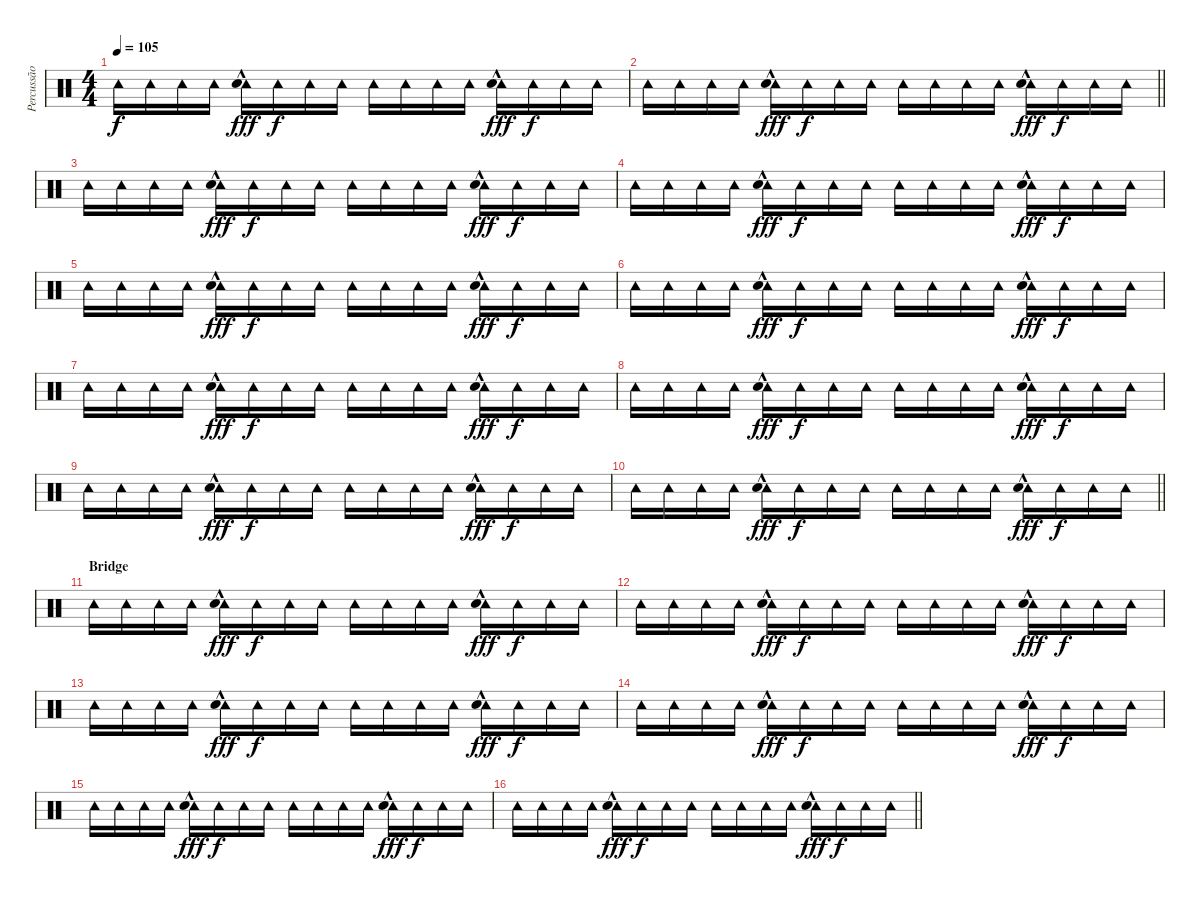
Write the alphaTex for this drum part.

\track ("Percussão" "Percussão") {instrument percussion}
\staff {score}
\articulation defaults
\ts (4 4)
\tempo 105
\clef neutral
\ks c "Tambourine (hit)".16{dy f} "Tambourine (hit)".16 "Tambourine (hit)".16 "Tambourine (hit)".16
("Tambourine (hit)" "Hand Clap (hit)"{hac}).16{dy fff} "Tambourine (hit)".16{dy f} "Tambourine (hit)".16 "Tambourine (hit)".16 "Tambourine (hit)".16 "Tambourine (hit)".16 "Tambourine (hit)".16 "Tambourine (hit)".16 ("Tambourine (hit)" "Hand Clap (hit)"{hac}).16{dy fff} "Tambourine (hit)".16{dy f} "Tambourine (hit)".16 "Tambourine (hit)".16 |
\barLineRight lightlight "Tambourine (hit)".16 "Tambourine (hit)".16 "Tambourine (hit)".16 "Tambourine (hit)".16
("Tambourine (hit)" "Hand Clap (hit)"{hac}).16{dy fff} "Tambourine (hit)".16{dy f} "Tambourine (hit)".16 "Tambourine (hit)".16 "Tambourine (hit)".16 "Tambourine (hit)".16 "Tambourine (hit)".16 "Tambourine (hit)".16 ("Tambourine (hit)" "Hand Clap (hit)"{hac}).16{dy fff} "Tambourine (hit)".16{dy f} "Tambourine (hit)".16 "Tambourine (hit)".16 |
"Tambourine (hit)".16 "Tambourine (hit)".16 "Tambourine (hit)".16 "Tambourine (hit)".16 ("Tambourine (hit)" "Hand Clap (hit)"{hac}).16{dy fff} "Tambourine (hit)".16{dy f} "Tambourine (hit)".16 "Tambourine (hit)".16 "Tambourine (hit)".16 "Tambourine (hit)".16 "Tambourine (hit)".16 "Tambourine (hit)".16 ("Tambourine (hit)" "Hand Clap (hit)"{hac}).16{dy fff} "Tambourine (hit)".16{dy f} "Tambourine (hit)".16 "Tambourine (hit)".16 |
"Tambourine (hit)".16 "Tambourine (hit)".16 "Tambourine (hit)".16 "Tambourine (hit)".16 ("Tambourine (hit)" "Hand Clap (hit)"{hac}).16{dy fff} "Tambourine (hit)".16{dy f} "Tambourine (hit)".16 "Tambourine (hit)".16 "Tambourine (hit)".16 "Tambourine (hit)".16 "Tambourine (hit)".16 "Tambourine (hit)".16 ("Tambourine (hit)" "Hand Clap (hit)"{hac}).16{dy fff} "Tambourine (hit)".16{dy f} "Tambourine (hit)".16 "Tambourine (hit)".16 |
"Tambourine (hit)".16 "Tambourine (hit)".16 "Tambourine (hit)".16 "Tambourine (hit)".16 ("Tambourine (hit)" "Hand Clap (hit)"{hac}).16{dy fff} "Tambourine (hit)".16{dy f} "Tambourine (hit)".16 "Tambourine (hit)".16 "Tambourine (hit)".16 "Tambourine (hit)".16 "Tambourine (hit)".16 "Tambourine (hit)".16 ("Tambourine (hit)" "Hand Clap (hit)"{hac}).16{dy fff} "Tambourine (hit)".16{dy f} "Tambourine (hit)".16 "Tambourine (hit)".16 |
"Tambourine (hit)".16 "Tambourine (hit)".16 "Tambourine (hit)".16 "Tambourine (hit)".16 ("Tambourine (hit)" "Hand Clap (hit)"{hac}).16{dy fff} "Tambourine (hit)".16{dy f} "Tambourine (hit)".16 "Tambourine (hit)".16 "Tambourine (hit)".16 "Tambourine (hit)".16 "Tambourine (hit)".16 "Tambourine (hit)".16 ("Tambourine (hit)" "Hand Clap (hit)"{hac}).16{dy fff} "Tambourine (hit)".16{dy f} "Tambourine (hit)".16 "Tambourine (hit)".16 |
"Tambourine (hit)".16 "Tambourine (hit)".16 "Tambourine (hit)".16 "Tambourine (hit)".16 ("Tambourine (hit)" "Hand Clap (hit)"{hac}).16{dy fff} "Tambourine (hit)".16{dy f} "Tambourine (hit)".16 "Tambourine (hit)".16 "Tambourine (hit)".16 "Tambourine (hit)".16 "Tambourine (hit)".16 "Tambourine (hit)".16 ("Tambourine (hit)" "Hand Clap (hit)"{hac}).16{dy fff} "Tambourine (hit)".16{dy f} "Tambourine (hit)".16 "Tambourine (hit)".16 |
"Tambourine (hit)".16 "Tambourine (hit)".16 "Tambourine (hit)".16 "Tambourine (hit)".16 ("Tambourine (hit)" "Hand Clap (hit)"{hac}).16{dy fff} "Tambourine (hit)".16{dy f} "Tambourine (hit)".16 "Tambourine (hit)".16 "Tambourine (hit)".16 "Tambourine (hit)".16 "Tambourine (hit)".16 "Tambourine (hit)".16 ("Tambourine (hit)" "Hand Clap (hit)"{hac}).16{dy fff} "Tambourine (hit)".16{dy f} "Tambourine (hit)".16 "Tambourine (hit)".16 |
"Tambourine (hit)".16 "Tambourine (hit)".16 "Tambourine (hit)".16 "Tambourine (hit)".16 ("Tambourine (hit)" "Hand Clap (hit)"{hac}).16{dy fff} "Tambourine (hit)".16{dy f} "Tambourine (hit)".16 "Tambourine (hit)".16 "Tambourine (hit)".16 "Tambourine (hit)".16 "Tambourine (hit)".16 "Tambourine (hit)".16 ("Tambourine (hit)" "Hand Clap (hit)"{hac}).16{dy fff} "Tambourine (hit)".16{dy f} "Tambourine (hit)".16 "Tambourine (hit)".16 |
\barLineRight lightlight "Tambourine (hit)".16 "Tambourine (hit)".16 "Tambourine (hit)".16 "Tambourine (hit)".16
("Tambourine (hit)" "Hand Clap (hit)"{hac}).16{dy fff} "Tambourine (hit)".16{dy f} "Tambourine (hit)".16 "Tambourine (hit)".16 "Tambourine (hit)".16 "Tambourine (hit)".16 "Tambourine (hit)".16 "Tambourine (hit)".16 ("Tambourine (hit)" "Hand Clap (hit)"{hac}).16{dy fff} "Tambourine (hit)".16{dy f} "Tambourine (hit)".16 "Tambourine (hit)".16 |
\section ("" "Bridge")
"Tambourine (hit)".16 "Tambourine (hit)".16 "Tambourine (hit)".16 "Tambourine (hit)".16 ("Tambourine (hit)" "Hand Clap (hit)"{hac}).16{dy fff} "Tambourine (hit)".16{dy f} "Tambourine (hit)".16 "Tambourine (hit)".16 "Tambourine (hit)".16 "Tambourine (hit)".16 "Tambourine (hit)".16 "Tambourine (hit)".16 ("Tambourine (hit)" "Hand Clap (hit)"{hac}).16{dy fff} "Tambourine (hit)".16{dy f} "Tambourine (hit)".16 "Tambourine (hit)".16 |
"Tambourine (hit)".16 "Tambourine (hit)".16 "Tambourine (hit)".16 "Tambourine (hit)".16 ("Tambourine (hit)" "Hand Clap (hit)"{hac}).16{dy fff} "Tambourine (hit)".16{dy f} "Tambourine (hit)".16 "Tambourine (hit)".16 "Tambourine (hit)".16 "Tambourine (hit)".16 "Tambourine (hit)".16 "Tambourine (hit)".16 ("Tambourine (hit)" "Hand Clap (hit)"{hac}).16{dy fff} "Tambourine (hit)".16{dy f} "Tambourine (hit)".16 "Tambourine (hit)".16 |
"Tambourine (hit)".16 "Tambourine (hit)".16 "Tambourine (hit)".16 "Tambourine (hit)".16 ("Tambourine (hit)" "Hand Clap (hit)"{hac}).16{dy fff} "Tambourine (hit)".16{dy f} "Tambourine (hit)".16 "Tambourine (hit)".16 "Tambourine (hit)".16 "Tambourine (hit)".16 "Tambourine (hit)".16 "Tambourine (hit)".16 ("Tambourine (hit)" "Hand Clap (hit)"{hac}).16{dy fff} "Tambourine (hit)".16{dy f} "Tambourine (hit)".16 "Tambourine (hit)".16 |
"Tambourine (hit)".16 "Tambourine (hit)".16 "Tambourine (hit)".16 "Tambourine (hit)".16 ("Tambourine (hit)" "Hand Clap (hit)"{hac}).16{dy fff} "Tambourine (hit)".16{dy f} "Tambourine (hit)".16 "Tambourine (hit)".16 "Tambourine (hit)".16 "Tambourine (hit)".16 "Tambourine (hit)".16 "Tambourine (hit)".16 ("Tambourine (hit)" "Hand Clap (hit)"{hac}).16{dy fff} "Tambourine (hit)".16{dy f} "Tambourine (hit)".16 "Tambourine (hit)".16 |
"Tambourine (hit)".16 "Tambourine (hit)".16 "Tambourine (hit)".16 "Tambourine (hit)".16 ("Tambourine (hit)" "Hand Clap (hit)"{hac}).16{dy fff} "Tambourine (hit)".16{dy f} "Tambourine (hit)".16 "Tambourine (hit)".16 "Tambourine (hit)".16 "Tambourine (hit)".16 "Tambourine (hit)".16 "Tambourine (hit)".16 ("Tambourine (hit)" "Hand Clap (hit)"{hac}).16{dy fff} "Tambourine (hit)".16{dy f} "Tambourine (hit)".16 "Tambourine (hit)".16 |
\barLineRight lightlight "Tambourine (hit)".16 "Tambourine (hit)".16 "Tambourine (hit)".16 "Tambourine (hit)".16
("Tambourine (hit)" "Hand Clap (hit)"{hac}).16{dy fff} "Tambourine (hit)".16{dy f} "Tambourine (hit)".16 "Tambourine (hit)".16 "Tambourine (hit)".16 "Tambourine (hit)".16 "Tambourine (hit)".16 "Tambourine (hit)".16 ("Tambourine (hit)" "Hand Clap (hit)"{hac}).16{dy fff} "Tambourine (hit)".16{dy f} "Tambourine (hit)".16 "Tambourine (hit)".16
